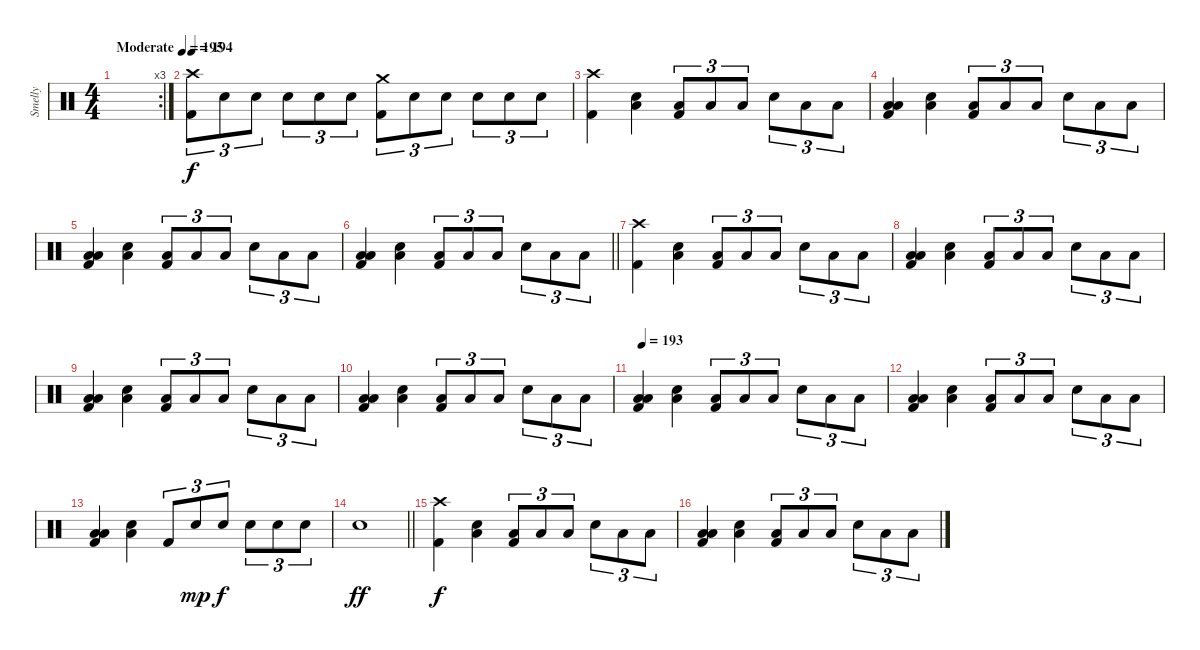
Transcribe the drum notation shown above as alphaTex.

\track ("Smelly" "Smelly") {instrument percussion}
\staff {score}
\articulation defaults
\rc 3
\ts (4 4)
\tempo (195 "Moderate")
\clef neutral
\ks c
|
\tempo 194
("Crash high (hit)" "Kick (hit) 2").8{tu (3 2)} "Electric Snare (hit)".8{tu (3 2)} "Electric Snare (hit)".8{tu (3 2)} "Electric Snare (hit)".8{tu (3 2)} "Electric Snare (hit)".8{tu (3 2)} "Electric Snare (hit)".8{tu (3 2)} ("Crash medium (hit)" "Kick (hit) 2").8{tu (3 2)} "Electric Snare (hit)".8{tu (3 2)} "Electric Snare (hit)".8{tu (3 2)} "Electric Snare (hit)".8{tu (3 2)} "Electric Snare (hit)".8{tu (3 2)} "Electric Snare (hit)".8{tu (3 2)} |
("Crash high (hit)" "Kick (hit) 2").4 ("Electric Snare (hit)" "Low Floor Tom (hit)").4 ("Low Floor Tom (hit)" "Kick (hit) 2").8{tu (3 2)} "Low Floor Tom (hit)".8{tu (3 2)} "Low Floor Tom (hit)".8{tu (3 2)} "Electric Snare (hit)".8{tu (3 2)} "Low Tom (hit)".8{tu (3 2)} "Low Floor Tom (hit)".8{tu (3 2)} |
("Low Tom (hit)" "Low Floor Tom (hit)" "Kick (hit) 2").4 ("Electric Snare (hit)" "Low Floor Tom (hit)").4 ("Low Floor Tom (hit)" "Kick (hit) 2").8{tu (3 2)} "Low Floor Tom (hit)".8{tu (3 2)} "Low Floor Tom (hit)".8{tu (3 2)} "Electric Snare (hit)".8{tu (3 2)} "Low Tom (hit)".8{tu (3 2)} "Low Floor Tom (hit)".8{tu (3 2)} |
("Low Tom (hit)" "Low Floor Tom (hit)" "Kick (hit) 2").4 ("Electric Snare (hit)" "Low Floor Tom (hit)").4 ("Low Floor Tom (hit)" "Kick (hit) 2").8{tu (3 2)} "Low Floor Tom (hit)".8{tu (3 2)} "Low Floor Tom (hit)".8{tu (3 2)} "Electric Snare (hit)".8{tu (3 2)} "Low Tom (hit)".8{tu (3 2)} "Low Floor Tom (hit)".8{tu (3 2)} |
\barLineRight lightlight
("Low Tom (hit)" "Low Floor Tom (hit)" "Kick (hit) 2").4 ("Electric Snare (hit)" "Low Floor Tom (hit)").4 ("Low Floor Tom (hit)" "Kick (hit) 2").8{tu (3 2)} "Low Floor Tom (hit)".8{tu (3 2)} "Low Floor Tom (hit)".8{tu (3 2)} "Electric Snare (hit)".8{tu (3 2)} "Low Tom (hit)".8{tu (3 2)} "Low Floor Tom (hit)".8{tu (3 2)} |
\section ("" "")
("Crash high (hit)" "Kick (hit) 2").4 ("Electric Snare (hit)" "Low Floor Tom (hit)").4 ("Low Floor Tom (hit)" "Kick (hit) 2").8{tu (3 2)} "Low Floor Tom (hit)".8{tu (3 2)} "Low Floor Tom (hit)".8{tu (3 2)} "Electric Snare (hit)".8{tu (3 2)} "Low Tom (hit)".8{tu (3 2)} "Low Floor Tom (hit)".8{tu (3 2)} |
("Low Tom (hit)" "Low Floor Tom (hit)" "Kick (hit) 2").4 ("Electric Snare (hit)" "Low Floor Tom (hit)").4 ("Low Floor Tom (hit)" "Kick (hit) 2").8{tu (3 2)} "Low Floor Tom (hit)".8{tu (3 2)} "Low Floor Tom (hit)".8{tu (3 2)} "Electric Snare (hit)".8{tu (3 2)} "Low Tom (hit)".8{tu (3 2)} "Low Floor Tom (hit)".8{tu (3 2)} |
("Low Tom (hit)" "Low Floor Tom (hit)" "Kick (hit) 2").4 ("Electric Snare (hit)" "Low Floor Tom (hit)").4 ("Low Floor Tom (hit)" "Kick (hit) 2").8{tu (3 2)} "Low Floor Tom (hit)".8{tu (3 2)} "Low Floor Tom (hit)".8{tu (3 2)} "Electric Snare (hit)".8{tu (3 2)} "Low Tom (hit)".8{tu (3 2)} "Low Floor Tom (hit)".8{tu (3 2)} |
("Low Tom (hit)" "Low Floor Tom (hit)" "Kick (hit) 2").4 ("Electric Snare (hit)" "Low Floor Tom (hit)").4 ("Low Floor Tom (hit)" "Kick (hit) 2").8{tu (3 2)} "Low Floor Tom (hit)".8{tu (3 2)} "Low Floor Tom (hit)".8{tu (3 2)} "Electric Snare (hit)".8{tu (3 2)} "Low Tom (hit)".8{tu (3 2)} "Low Floor Tom (hit)".8{tu (3 2)} |
\tempo 193
("Low Tom (hit)" "Low Floor Tom (hit)" "Kick (hit) 2").4 ("Electric Snare (hit)" "Low Floor Tom (hit)").4 ("Low Floor Tom (hit)" "Kick (hit) 2").8{tu (3 2)} "Low Floor Tom (hit)".8{tu (3 2)} "Low Floor Tom (hit)".8{tu (3 2)} "Electric Snare (hit)".8{tu (3 2)} "Low Tom (hit)".8{tu (3 2)} "Low Floor Tom (hit)".8{tu (3 2)} |
("Low Tom (hit)" "Low Floor Tom (hit)" "Kick (hit) 2").4 ("Electric Snare (hit)" "Low Floor Tom (hit)").4 ("Low Floor Tom (hit)" "Kick (hit) 2").8{tu (3 2)} "Low Floor Tom (hit)".8{tu (3 2)} "Low Floor Tom (hit)".8{tu (3 2)} "Electric Snare (hit)".8{tu (3 2)} "Low Tom (hit)".8{tu (3 2)} "Low Floor Tom (hit)".8{tu (3 2)} |
("Low Tom (hit)" "Low Floor Tom (hit)" "Kick (hit) 2").4 ("Electric Snare (hit)" "Low Floor Tom (hit)").4 "Kick (hit) 2".8{tu (3 2)} "Electric Snare (hit)".8{tu (3 2) dy mp} "Electric Snare (hit)".8{tu (3 2) dy f} "Electric Snare (hit)".8{tu (3 2)} "Electric Snare (hit)".8{tu (3 2)} "Electric Snare (hit)".8{tu (3 2)} |
\barLineRight lightlight "Electric Snare (hit)".1{dy ff}
|
\section ("" "")
("Crash high (hit)" "Kick (hit) 2").4{dy f} ("Electric Snare (hit)" "Low Floor Tom (hit)").4 ("Low Floor Tom (hit)" "Kick (hit) 2").8{tu (3 2)} "Low Floor Tom (hit)".8{tu (3 2)} "Low Floor Tom (hit)".8{tu (3 2)} "Electric Snare (hit)".8{tu (3 2)} "Low Tom (hit)".8{tu (3 2)} "Low Floor Tom (hit)".8{tu (3 2)} |
("Low Tom (hit)" "Low Floor Tom (hit)" "Kick (hit) 2").4 ("Electric Snare (hit)" "Low Floor Tom (hit)").4 ("Low Floor Tom (hit)" "Kick (hit) 2").8{tu (3 2)} "Low Floor Tom (hit)".8{tu (3 2)} "Low Floor Tom (hit)".8{tu (3 2)} "Electric Snare (hit)".8{tu (3 2)} "Low Tom (hit)".8{tu (3 2)} "Low Floor Tom (hit)".8{tu (3 2)}
